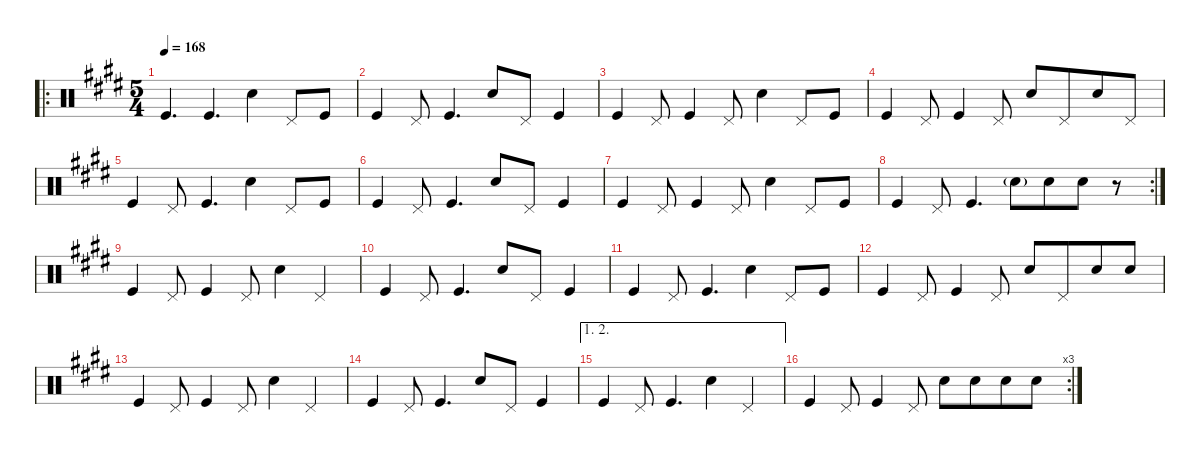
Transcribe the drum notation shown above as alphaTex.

\defaultSystemsLayout 4
\hideDynamics
\bracketExtendMode nobrackets
\singleTrackTrackNamePolicy hidden
\multiTrackTrackNamePolicy hidden
\firstSystemTrackNameMode fullname
\firstSystemTrackNameOrientation horizontal
\otherSystemsTrackNameOrientation horizontal
\track ("Percussion" "drm.") {instrument percussion}
\staff {score}
\articulation defaults
\ro
\ts (5 4)
\beaming (8 6 4)
\tempo 168
\clef neutral
\ks c#minor "Kick (hit)"{acc forcenatural}.4{d dy f} "Kick (hit)"{acc forcenatural}.4{d} "Snare (hit) 2"{acc forcenatural}.4 "Pedal Hi-Hat (hit)"{acc forcenatural}.8 "Kick (hit)"{acc forcenatural}.8
|
"Kick (hit)"{acc forcenatural}.4 "Pedal Hi-Hat (hit)"{acc forcenatural}.8 "Kick (hit)"{acc forcenatural}.4{d} "Snare (hit) 2"{acc forcenatural}.8 "Pedal Hi-Hat (hit)"{acc forcenatural}.8 "Kick (hit)"{acc forcenatural}.4 |
"Kick (hit)"{acc forcenatural}.4 "Pedal Hi-Hat (hit)"{acc forcenatural}.8 "Kick (hit)"{acc forcenatural}.4 "Pedal Hi-Hat (hit)"{acc forcenatural}.8 "Snare (hit) 2"{acc forcenatural}.4 "Pedal Hi-Hat (hit)"{acc forcenatural}.8 "Kick (hit)"{acc forcenatural}.8 |
"Kick (hit)"{acc forcenatural}.4 "Pedal Hi-Hat (hit)"{acc forcenatural}.8 "Kick (hit)"{acc forcenatural}.4 "Pedal Hi-Hat (hit)"{acc forcenatural}.8 "Snare (hit) 2"{acc forcenatural}.8 "Pedal Hi-Hat (hit)"{acc forcenatural}.8 "Snare (hit) 2"{acc forcenatural}.8 "Pedal Hi-Hat (hit)"{acc forcenatural}.8 |
"Kick (hit)"{acc forcenatural}.4 "Pedal Hi-Hat (hit)"{acc forcenatural}.8 "Kick (hit)"{acc forcenatural}.4{d} "Snare (hit) 2"{acc forcenatural}.4 "Pedal Hi-Hat (hit)"{acc forcenatural}.8 "Kick (hit)"{acc forcenatural}.8 |
"Kick (hit)"{acc forcenatural}.4 "Pedal Hi-Hat (hit)"{acc forcenatural}.8 "Kick (hit)"{acc forcenatural}.4{d} "Snare (hit) 2"{acc forcenatural}.8 "Pedal Hi-Hat (hit)"{acc forcenatural}.8 "Kick (hit)"{acc forcenatural}.4 |
"Kick (hit)"{acc forcenatural}.4 "Pedal Hi-Hat (hit)"{acc forcenatural}.8 "Kick (hit)"{acc forcenatural}.4 "Pedal Hi-Hat (hit)"{acc forcenatural}.8 "Snare (hit) 2"{acc forcenatural}.4 "Pedal Hi-Hat (hit)"{acc forcenatural}.8 "Kick (hit)"{acc forcenatural}.8 |
\rc 2 "Kick (hit)"{acc forcenatural}.4 "Pedal Hi-Hat (hit)"{acc forcenatural}.8 "Kick (hit)"{acc forcenatural}.4{d} "Snare (hit) 2"{g acc forcenatural}.8{dy mf} "Snare (hit) 2"{acc forcenatural}.8{dy f} "Snare (hit) 2"{acc forcenatural}.8
r.8 |
"Kick (hit)"{acc forcenatural}.4 "Pedal Hi-Hat (hit)"{acc forcenatural}.8 "Kick (hit)"{acc forcenatural}.4 "Pedal Hi-Hat (hit)"{acc forcenatural}.8 "Snare (hit) 2"{acc forcenatural}.4 "Pedal Hi-Hat (hit)"{acc forcenatural}.4 |
"Kick (hit)"{acc forcenatural}.4 "Pedal Hi-Hat (hit)"{acc forcenatural}.8 "Kick (hit)"{acc forcenatural}.4{d} "Snare (hit) 2"{acc forcenatural}.8 "Pedal Hi-Hat (hit)"{acc forcenatural}.8 "Kick (hit)"{acc forcenatural}.4 |
"Kick (hit)"{acc forcenatural}.4 "Pedal Hi-Hat (hit)"{acc forcenatural}.8 "Kick (hit)"{acc forcenatural}.4{d} "Snare (hit) 2"{acc forcenatural}.4 "Pedal Hi-Hat (hit)"{acc forcenatural}.8 "Kick (hit)"{acc forcenatural}.8 |
"Kick (hit)"{acc forcenatural}.4 "Pedal Hi-Hat (hit)"{acc forcenatural}.8 "Kick (hit)"{acc forcenatural}.4 "Pedal Hi-Hat (hit)"{acc forcenatural}.8 "Snare (hit) 2"{acc forcenatural}.8 "Pedal Hi-Hat (hit)"{acc forcenatural}.8 "Snare (hit) 2"{acc forcenatural}.8 "Snare (hit) 2"{acc forcenatural}.8 |
"Kick (hit)"{acc forcenatural}.4 "Pedal Hi-Hat (hit)"{acc forcenatural}.8 "Kick (hit)"{acc forcenatural}.4 "Pedal Hi-Hat (hit)"{acc forcenatural}.8 "Snare (hit) 2"{acc forcenatural}.4 "Pedal Hi-Hat (hit)"{acc forcenatural}.4 |
"Kick (hit)"{acc forcenatural}.4 "Pedal Hi-Hat (hit)"{acc forcenatural}.8 "Kick (hit)"{acc forcenatural}.4{d} "Snare (hit) 2"{acc forcenatural}.8 "Pedal Hi-Hat (hit)"{acc forcenatural}.8 "Kick (hit)"{acc forcenatural}.4 |
\ae (1 2)
"Kick (hit)"{acc forcenatural}.4 "Pedal Hi-Hat (hit)"{acc forcenatural}.8 "Kick (hit)"{acc forcenatural}.4{d} "Snare (hit) 2"{acc forcenatural}.4 "Pedal Hi-Hat (hit)"{acc forcenatural}.4 |
\rc 3 "Kick (hit)"{acc forcenatural}.4 "Pedal Hi-Hat (hit)"{acc forcenatural}.8 "Kick (hit)"{acc forcenatural}.4 "Pedal Hi-Hat (hit)"{acc forcenatural}.8 "Snare (hit) 2"{acc forcenatural}.8 "Snare (hit) 2"{acc forcenatural}.8 "Snare (hit) 2"{acc forcenatural}.8 "Snare (hit) 2"{acc forcenatural}.8
